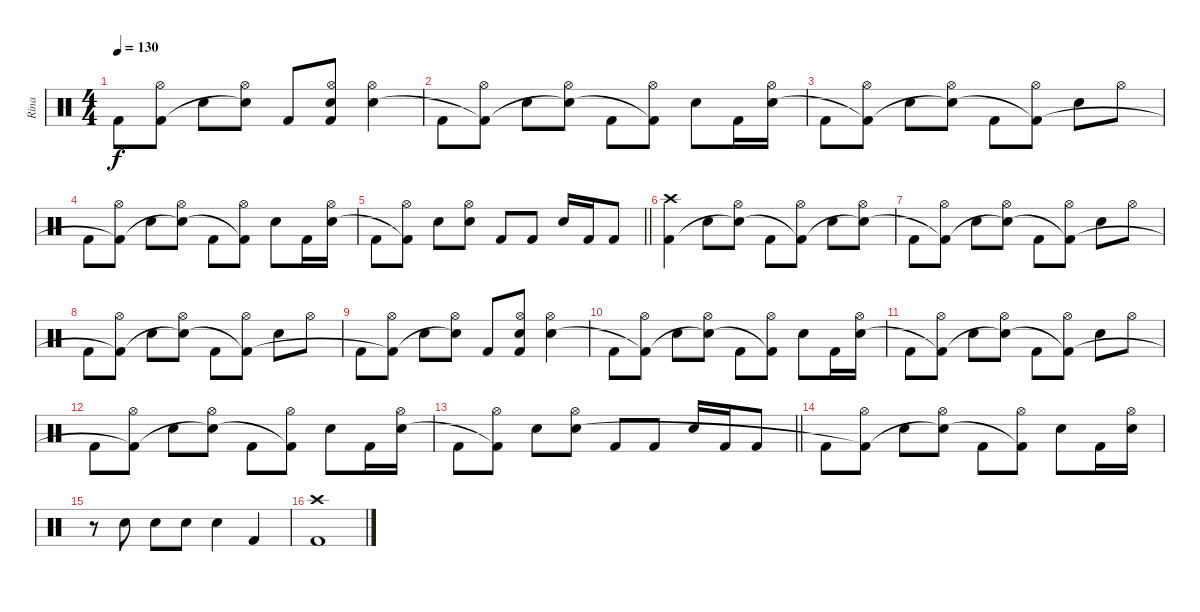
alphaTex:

\track ("Rina" "Rina") {instrument percussion}
\staff {score}
\articulation defaults
\ts (4 4)
\tempo 130
\clef neutral
\ks c "Kick (hit) 2".8{dy f}
("Hi-Hat (open)" "Kick (hit) 2"{t}).8 "Snare (hit) 2".8 ("Hi-Hat (open)" "Snare (hit) 2"{t}).8 "Kick (hit) 2".8 ("Hi-Hat (open)" "Snare (hit) 2" "Kick (hit) 2").8 ("Hi-Hat (open)" "Snare (hit) 2").4 |
"Kick (hit) 2".8 ("Hi-Hat (open)" "Kick (hit) 2"{t}).8 "Snare (hit) 2".8 ("Hi-Hat (open)" "Snare (hit) 2"{t}).8 "Kick (hit) 2".8 ("Hi-Hat (open)" "Kick (hit) 2"{t}).8 "Snare (hit) 2".8 "Kick (hit) 2".16 ("Hi-Hat (open)" "Snare (hit) 2").16 |
"Kick (hit) 2".8 ("Hi-Hat (open)" "Kick (hit) 2"{t}).8 "Snare (hit) 2".8 ("Hi-Hat (open)" "Snare (hit) 2"{t}).8 "Kick (hit) 2".8 ("Hi-Hat (open)" "Kick (hit) 2"{t}).8 "Snare (hit) 2".8 "Hi-Hat (open)".8 |
"Kick (hit) 2".8 ("Hi-Hat (open)" "Kick (hit) 2"{t}).8 "Snare (hit) 2".8 ("Hi-Hat (open)" "Snare (hit) 2"{t}).8 "Kick (hit) 2".8 ("Hi-Hat (open)" "Kick (hit) 2"{t}).8 "Snare (hit) 2".8 "Kick (hit) 2".16 ("Hi-Hat (open)" "Snare (hit) 2").16 |
\barLineRight lightlight "Kick (hit) 2".8
("Hi-Hat (open)" "Kick (hit) 2"{t}).8 "Snare (hit) 2".8 ("Hi-Hat (open)" "Snare (hit) 2").8 "Kick (hit) 2".8 "Kick (hit) 2".8 "Snare (hit) 2".16 "Kick (hit) 2".16 "Kick (hit) 2".8 |
("Crash high (hit)" "Kick (hit) 2").4 "Snare (hit) 2".8 ("Hi-Hat (open)" "Snare (hit) 2"{t}).8 "Kick (hit) 2".8 ("Hi-Hat (open)" "Kick (hit) 2"{t}).8 "Snare (hit) 2".8 ("Hi-Hat (open)" "Snare (hit) 2"{t}).8 |
"Kick (hit) 2".8 ("Hi-Hat (open)" "Kick (hit) 2"{t}).8 "Snare (hit) 2".8 ("Hi-Hat (open)" "Snare (hit) 2"{t}).8 "Kick (hit) 2".8 ("Hi-Hat (open)" "Kick (hit) 2"{t}).8 "Snare (hit) 2".8 "Hi-Hat (open)".8 |
"Kick (hit) 2".8 ("Hi-Hat (open)" "Kick (hit) 2"{t}).8 "Snare (hit) 2".8 ("Hi-Hat (open)" "Snare (hit) 2"{t}).8 "Kick (hit) 2".8 ("Hi-Hat (open)" "Kick (hit) 2"{t}).8 "Snare (hit) 2".8 "Hi-Hat (open)".8 |
"Kick (hit) 2".8 ("Hi-Hat (open)" "Kick (hit) 2"{t}).8 "Snare (hit) 2".8 ("Hi-Hat (open)" "Snare (hit) 2"{t}).8 "Kick (hit) 2".8 ("Hi-Hat (open)" "Snare (hit) 2" "Kick (hit) 2").8 ("Hi-Hat (open)" "Snare (hit) 2").4 |
"Kick (hit) 2".8 ("Hi-Hat (open)" "Kick (hit) 2"{t}).8 "Snare (hit) 2".8 ("Hi-Hat (open)" "Snare (hit) 2"{t}).8 "Kick (hit) 2".8 ("Hi-Hat (open)" "Kick (hit) 2"{t}).8 "Snare (hit) 2".8 "Kick (hit) 2".16 ("Hi-Hat (open)" "Snare (hit) 2").16 |
"Kick (hit) 2".8 ("Hi-Hat (open)" "Kick (hit) 2"{t}).8 "Snare (hit) 2".8 ("Hi-Hat (open)" "Snare (hit) 2"{t}).8 "Kick (hit) 2".8 ("Hi-Hat (open)" "Kick (hit) 2"{t}).8 "Snare (hit) 2".8 "Hi-Hat (open)".8 |
"Kick (hit) 2".8 ("Hi-Hat (open)" "Kick (hit) 2"{t}).8 "Snare (hit) 2".8 ("Hi-Hat (open)" "Snare (hit) 2"{t}).8 "Kick (hit) 2".8 ("Hi-Hat (open)" "Kick (hit) 2"{t}).8 "Snare (hit) 2".8 "Kick (hit) 2".16 ("Hi-Hat (open)" "Snare (hit) 2").16 |
\barLineRight lightlight "Kick (hit) 2".8
("Hi-Hat (open)" "Kick (hit) 2"{t}).8 "Snare (hit) 2".8 ("Hi-Hat (open)" "Snare (hit) 2").8 "Kick (hit) 2".8 "Kick (hit) 2".8 "Snare (hit) 2".16 "Kick (hit) 2".16 "Kick (hit) 2".8 |
"Kick (hit) 2".8 ("Hi-Hat (open)" "Kick (hit) 2"{t}).8 "Snare (hit) 2".8 ("Hi-Hat (open)" "Snare (hit) 2"{t}).8 "Kick (hit) 2".8 ("Hi-Hat (open)" "Kick (hit) 2"{t}).8 "Snare (hit) 2".8 "Kick (hit) 2".16 ("Hi-Hat (open)" "Snare (hit) 2").16 |
r.8 "Snare (hit) 2".8 "Snare (hit) 2".8 "Snare (hit) 2".8 "Snare (hit) 2".4 "Kick (hit) 2".4 |
("Crash high (hit)" "Kick (hit) 2").1
